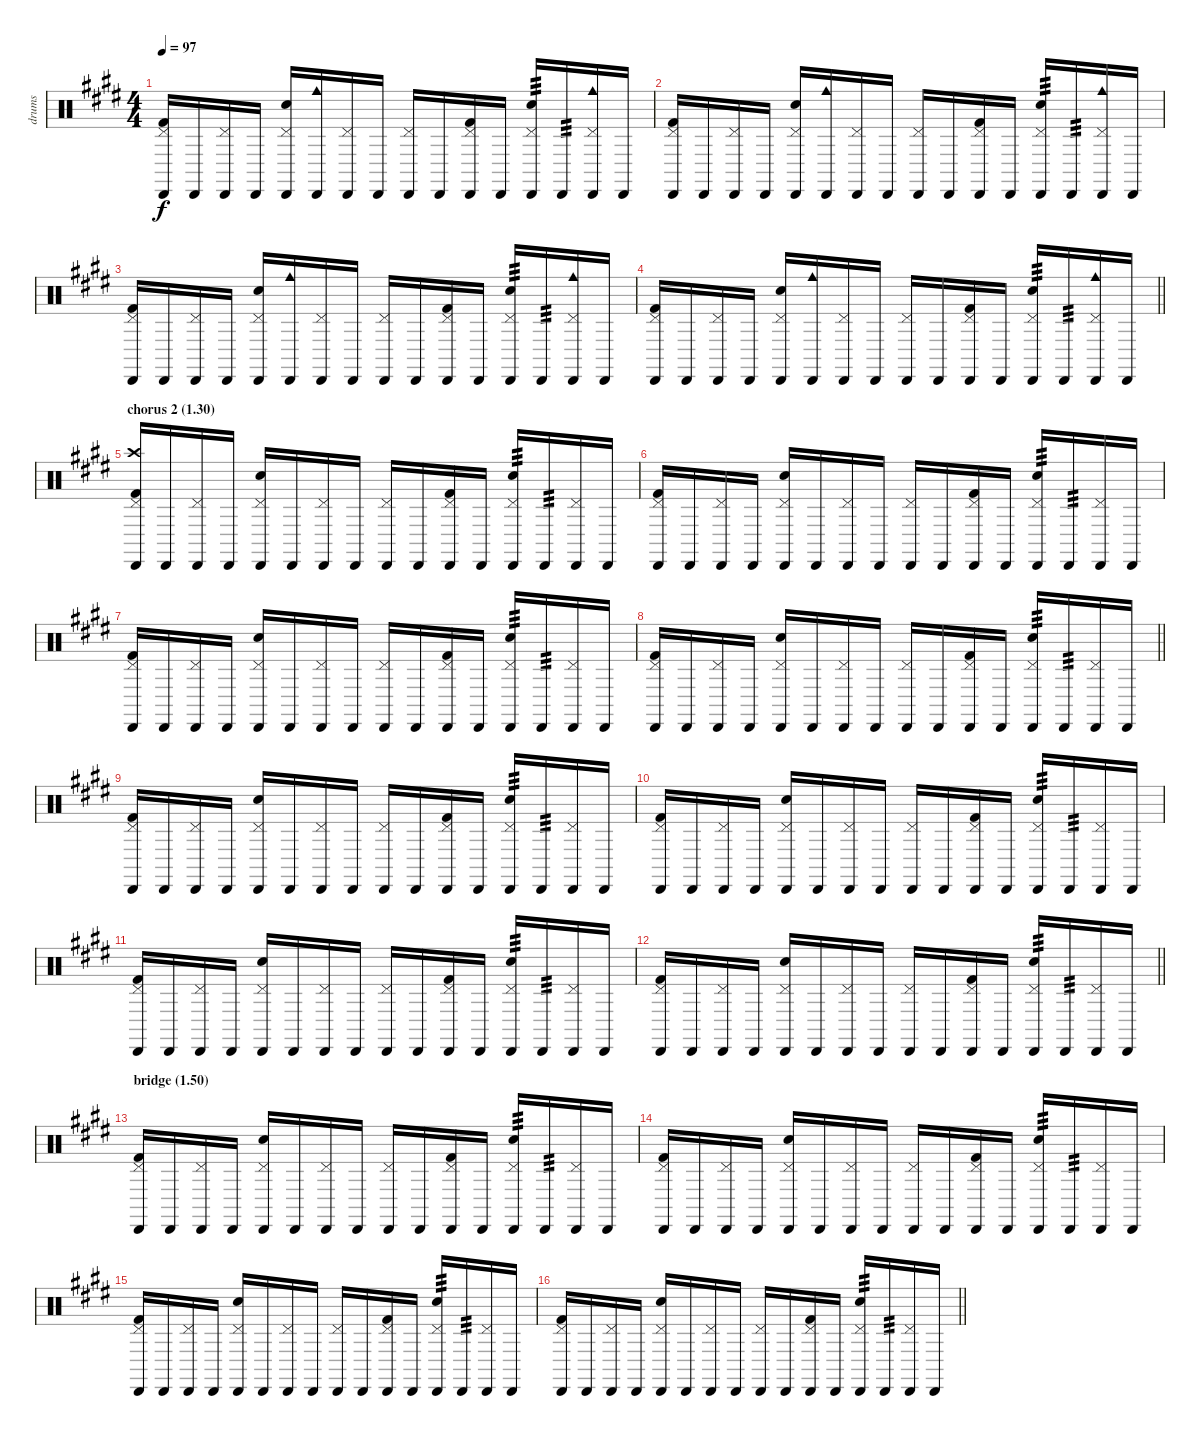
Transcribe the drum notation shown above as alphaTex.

\track ("drums" "drums") {instrument percussion}
\staff {score}
\articulation defaults
\ts (4 4)
\tempo 97
\clef neutral
\ks e
("Pedal Hi-Hat (hit)" "Cabasa (hit)" "Kick (hit) 2").16{dy f} "Cabasa (hit)".16 ("Pedal Hi-Hat (hit)" "Cabasa (hit)").16 "Cabasa (hit)".16 ("Pedal Hi-Hat (hit)" "Cabasa (hit)" "Electric Snare (hit)").16 ("Cabasa (hit)" "Cowbell medium (hit)").16 ("Pedal Hi-Hat (hit)" "Cabasa (hit)").16 "Cabasa (hit)".16 ("Pedal Hi-Hat (hit)" "Cabasa (hit)").16 "Cabasa (hit)".16 ("Pedal Hi-Hat (hit)" "Cabasa (hit)" "Kick (hit) 2").16 "Cabasa (hit)".16 ("Pedal Hi-Hat (hit)" "Cabasa (hit)" "Electric Snare (hit)").16{tp 3} "Cabasa (hit)".16{tp 3} ("Pedal Hi-Hat (hit)" "Cabasa (hit)" "Cowbell medium (hit)").16 "Cabasa (hit)".16 |
("Pedal Hi-Hat (hit)" "Cabasa (hit)" "Kick (hit) 2").16 "Cabasa (hit)".16 ("Pedal Hi-Hat (hit)" "Cabasa (hit)").16 "Cabasa (hit)".16 ("Pedal Hi-Hat (hit)" "Cabasa (hit)" "Electric Snare (hit)").16 ("Cabasa (hit)" "Cowbell medium (hit)").16 ("Pedal Hi-Hat (hit)" "Cabasa (hit)").16 "Cabasa (hit)".16 ("Pedal Hi-Hat (hit)" "Cabasa (hit)").16 "Cabasa (hit)".16 ("Pedal Hi-Hat (hit)" "Cabasa (hit)" "Kick (hit) 2").16 "Cabasa (hit)".16 ("Pedal Hi-Hat (hit)" "Cabasa (hit)" "Electric Snare (hit)").16{tp 3} "Cabasa (hit)".16{tp 3} ("Pedal Hi-Hat (hit)" "Cabasa (hit)" "Cowbell medium (hit)").16 "Cabasa (hit)".16 |
("Pedal Hi-Hat (hit)" "Cabasa (hit)" "Kick (hit) 2").16 "Cabasa (hit)".16 ("Pedal Hi-Hat (hit)" "Cabasa (hit)").16 "Cabasa (hit)".16 ("Pedal Hi-Hat (hit)" "Cabasa (hit)" "Electric Snare (hit)").16 ("Cabasa (hit)" "Cowbell medium (hit)").16 ("Pedal Hi-Hat (hit)" "Cabasa (hit)").16 "Cabasa (hit)".16 ("Pedal Hi-Hat (hit)" "Cabasa (hit)").16 "Cabasa (hit)".16 ("Pedal Hi-Hat (hit)" "Cabasa (hit)" "Kick (hit) 2").16 "Cabasa (hit)".16 ("Pedal Hi-Hat (hit)" "Cabasa (hit)" "Electric Snare (hit)").16{tp 3} "Cabasa (hit)".16{tp 3} ("Pedal Hi-Hat (hit)" "Cabasa (hit)" "Cowbell medium (hit)").16 "Cabasa (hit)".16 |
\barLineRight lightlight
("Pedal Hi-Hat (hit)" "Cabasa (hit)" "Kick (hit) 2").16 "Cabasa (hit)".16 ("Pedal Hi-Hat (hit)" "Cabasa (hit)").16 "Cabasa (hit)".16 ("Pedal Hi-Hat (hit)" "Cabasa (hit)" "Electric Snare (hit)").16 ("Cabasa (hit)" "Cowbell medium (hit)").16 ("Pedal Hi-Hat (hit)" "Cabasa (hit)").16 "Cabasa (hit)".16 ("Pedal Hi-Hat (hit)" "Cabasa (hit)").16 "Cabasa (hit)".16 ("Pedal Hi-Hat (hit)" "Cabasa (hit)" "Kick (hit) 2").16 "Cabasa (hit)".16 ("Pedal Hi-Hat (hit)" "Cabasa (hit)" "Electric Snare (hit)").16{tp 3} "Cabasa (hit)".16{tp 3} ("Pedal Hi-Hat (hit)" "Cabasa (hit)" "Cowbell medium (hit)").16 "Cabasa (hit)".16 |
\section ("" "chorus 2 (1.30)")
("Pedal Hi-Hat (hit)" "Cabasa (hit)" "Crash high (hit)" "Kick (hit) 2").16 "Cabasa (hit)".16 ("Pedal Hi-Hat (hit)" "Cabasa (hit)").16 "Cabasa (hit)".16 ("Pedal Hi-Hat (hit)" "Cabasa (hit)" "Electric Snare (hit)").16 "Cabasa (hit)".16 ("Pedal Hi-Hat (hit)" "Cabasa (hit)").16 "Cabasa (hit)".16 ("Pedal Hi-Hat (hit)" "Cabasa (hit)").16 "Cabasa (hit)".16 ("Pedal Hi-Hat (hit)" "Cabasa (hit)" "Kick (hit) 2").16 "Cabasa (hit)".16 ("Pedal Hi-Hat (hit)" "Cabasa (hit)" "Electric Snare (hit)").16{tp 3} "Cabasa (hit)".16{tp 3} ("Pedal Hi-Hat (hit)" "Cabasa (hit)").16 "Cabasa (hit)".16 |
("Pedal Hi-Hat (hit)" "Cabasa (hit)" "Kick (hit) 2").16 "Cabasa (hit)".16 ("Pedal Hi-Hat (hit)" "Cabasa (hit)").16 "Cabasa (hit)".16 ("Pedal Hi-Hat (hit)" "Cabasa (hit)" "Electric Snare (hit)").16 "Cabasa (hit)".16 ("Pedal Hi-Hat (hit)" "Cabasa (hit)").16 "Cabasa (hit)".16 ("Pedal Hi-Hat (hit)" "Cabasa (hit)").16 "Cabasa (hit)".16 ("Pedal Hi-Hat (hit)" "Cabasa (hit)" "Kick (hit) 2").16 "Cabasa (hit)".16 ("Pedal Hi-Hat (hit)" "Cabasa (hit)" "Electric Snare (hit)").16{tp 3} "Cabasa (hit)".16{tp 3} ("Pedal Hi-Hat (hit)" "Cabasa (hit)").16 "Cabasa (hit)".16 |
("Pedal Hi-Hat (hit)" "Cabasa (hit)" "Kick (hit) 2").16 "Cabasa (hit)".16 ("Pedal Hi-Hat (hit)" "Cabasa (hit)").16 "Cabasa (hit)".16 ("Pedal Hi-Hat (hit)" "Cabasa (hit)" "Electric Snare (hit)").16 "Cabasa (hit)".16 ("Pedal Hi-Hat (hit)" "Cabasa (hit)").16 "Cabasa (hit)".16 ("Pedal Hi-Hat (hit)" "Cabasa (hit)").16 "Cabasa (hit)".16 ("Pedal Hi-Hat (hit)" "Cabasa (hit)" "Kick (hit) 2").16 "Cabasa (hit)".16 ("Pedal Hi-Hat (hit)" "Cabasa (hit)" "Electric Snare (hit)").16{tp 3} "Cabasa (hit)".16{tp 3} ("Pedal Hi-Hat (hit)" "Cabasa (hit)").16 "Cabasa (hit)".16 |
\barLineRight lightlight
("Pedal Hi-Hat (hit)" "Cabasa (hit)" "Kick (hit) 2").16 "Cabasa (hit)".16 ("Pedal Hi-Hat (hit)" "Cabasa (hit)").16 "Cabasa (hit)".16 ("Pedal Hi-Hat (hit)" "Cabasa (hit)" "Electric Snare (hit)").16 "Cabasa (hit)".16 ("Pedal Hi-Hat (hit)" "Cabasa (hit)").16 "Cabasa (hit)".16 ("Pedal Hi-Hat (hit)" "Cabasa (hit)").16 "Cabasa (hit)".16 ("Pedal Hi-Hat (hit)" "Cabasa (hit)" "Kick (hit) 2").16 "Cabasa (hit)".16 ("Pedal Hi-Hat (hit)" "Cabasa (hit)" "Electric Snare (hit)").16{tp 3} "Cabasa (hit)".16{tp 3} ("Pedal Hi-Hat (hit)" "Cabasa (hit)").16 "Cabasa (hit)".16 |
("Pedal Hi-Hat (hit)" "Cabasa (hit)" "Kick (hit) 2").16 "Cabasa (hit)".16 ("Pedal Hi-Hat (hit)" "Cabasa (hit)").16 "Cabasa (hit)".16 ("Pedal Hi-Hat (hit)" "Cabasa (hit)" "Electric Snare (hit)").16 "Cabasa (hit)".16 ("Pedal Hi-Hat (hit)" "Cabasa (hit)").16 "Cabasa (hit)".16 ("Pedal Hi-Hat (hit)" "Cabasa (hit)").16 "Cabasa (hit)".16 ("Pedal Hi-Hat (hit)" "Cabasa (hit)" "Kick (hit) 2").16 "Cabasa (hit)".16 ("Pedal Hi-Hat (hit)" "Cabasa (hit)" "Electric Snare (hit)").16{tp 3} "Cabasa (hit)".16{tp 3} ("Pedal Hi-Hat (hit)" "Cabasa (hit)").16 "Cabasa (hit)".16 |
("Pedal Hi-Hat (hit)" "Cabasa (hit)" "Kick (hit) 2").16 "Cabasa (hit)".16 ("Pedal Hi-Hat (hit)" "Cabasa (hit)").16 "Cabasa (hit)".16 ("Pedal Hi-Hat (hit)" "Cabasa (hit)" "Electric Snare (hit)").16 "Cabasa (hit)".16 ("Pedal Hi-Hat (hit)" "Cabasa (hit)").16 "Cabasa (hit)".16 ("Pedal Hi-Hat (hit)" "Cabasa (hit)").16 "Cabasa (hit)".16 ("Pedal Hi-Hat (hit)" "Cabasa (hit)" "Kick (hit) 2").16 "Cabasa (hit)".16 ("Pedal Hi-Hat (hit)" "Cabasa (hit)" "Electric Snare (hit)").16{tp 3} "Cabasa (hit)".16{tp 3} ("Pedal Hi-Hat (hit)" "Cabasa (hit)").16 "Cabasa (hit)".16 |
("Pedal Hi-Hat (hit)" "Cabasa (hit)" "Kick (hit) 2").16 "Cabasa (hit)".16 ("Pedal Hi-Hat (hit)" "Cabasa (hit)").16 "Cabasa (hit)".16 ("Pedal Hi-Hat (hit)" "Cabasa (hit)" "Electric Snare (hit)").16 "Cabasa (hit)".16 ("Pedal Hi-Hat (hit)" "Cabasa (hit)").16 "Cabasa (hit)".16 ("Pedal Hi-Hat (hit)" "Cabasa (hit)").16 "Cabasa (hit)".16 ("Pedal Hi-Hat (hit)" "Cabasa (hit)" "Kick (hit) 2").16 "Cabasa (hit)".16 ("Pedal Hi-Hat (hit)" "Cabasa (hit)" "Electric Snare (hit)").16{tp 3} "Cabasa (hit)".16{tp 3} ("Pedal Hi-Hat (hit)" "Cabasa (hit)").16 "Cabasa (hit)".16 |
\barLineRight lightlight
("Pedal Hi-Hat (hit)" "Cabasa (hit)" "Kick (hit) 2").16 "Cabasa (hit)".16 ("Pedal Hi-Hat (hit)" "Cabasa (hit)").16 "Cabasa (hit)".16 ("Pedal Hi-Hat (hit)" "Cabasa (hit)" "Electric Snare (hit)").16 "Cabasa (hit)".16 ("Pedal Hi-Hat (hit)" "Cabasa (hit)").16 "Cabasa (hit)".16 ("Pedal Hi-Hat (hit)" "Cabasa (hit)").16 "Cabasa (hit)".16 ("Pedal Hi-Hat (hit)" "Cabasa (hit)" "Kick (hit) 2").16 "Cabasa (hit)".16 ("Pedal Hi-Hat (hit)" "Cabasa (hit)" "Electric Snare (hit)").16{tp 3} "Cabasa (hit)".16{tp 3} ("Pedal Hi-Hat (hit)" "Cabasa (hit)").16 "Cabasa (hit)".16 |
\section ("" "bridge (1.50)")
("Pedal Hi-Hat (hit)" "Cabasa (hit)" "Kick (hit) 2").16 "Cabasa (hit)".16 ("Pedal Hi-Hat (hit)" "Cabasa (hit)").16 "Cabasa (hit)".16 ("Pedal Hi-Hat (hit)" "Cabasa (hit)" "Electric Snare (hit)").16 "Cabasa (hit)".16 ("Pedal Hi-Hat (hit)" "Cabasa (hit)").16 "Cabasa (hit)".16 ("Pedal Hi-Hat (hit)" "Cabasa (hit)").16 "Cabasa (hit)".16 ("Pedal Hi-Hat (hit)" "Cabasa (hit)" "Kick (hit) 2").16 "Cabasa (hit)".16 ("Pedal Hi-Hat (hit)" "Cabasa (hit)" "Electric Snare (hit)").16{tp 3} "Cabasa (hit)".16{tp 3} ("Pedal Hi-Hat (hit)" "Cabasa (hit)").16 "Cabasa (hit)".16 |
("Pedal Hi-Hat (hit)" "Cabasa (hit)" "Kick (hit) 2").16 "Cabasa (hit)".16 ("Pedal Hi-Hat (hit)" "Cabasa (hit)").16 "Cabasa (hit)".16 ("Pedal Hi-Hat (hit)" "Cabasa (hit)" "Electric Snare (hit)").16 "Cabasa (hit)".16 ("Pedal Hi-Hat (hit)" "Cabasa (hit)").16 "Cabasa (hit)".16 ("Pedal Hi-Hat (hit)" "Cabasa (hit)").16 "Cabasa (hit)".16 ("Pedal Hi-Hat (hit)" "Cabasa (hit)" "Kick (hit) 2").16 "Cabasa (hit)".16 ("Pedal Hi-Hat (hit)" "Cabasa (hit)" "Electric Snare (hit)").16{tp 3} "Cabasa (hit)".16{tp 3} ("Pedal Hi-Hat (hit)" "Cabasa (hit)").16 "Cabasa (hit)".16 |
("Pedal Hi-Hat (hit)" "Cabasa (hit)" "Kick (hit) 2").16 "Cabasa (hit)".16 ("Pedal Hi-Hat (hit)" "Cabasa (hit)").16 "Cabasa (hit)".16 ("Pedal Hi-Hat (hit)" "Cabasa (hit)" "Electric Snare (hit)").16 "Cabasa (hit)".16 ("Pedal Hi-Hat (hit)" "Cabasa (hit)").16 "Cabasa (hit)".16 ("Pedal Hi-Hat (hit)" "Cabasa (hit)").16 "Cabasa (hit)".16 ("Pedal Hi-Hat (hit)" "Cabasa (hit)" "Kick (hit) 2").16 "Cabasa (hit)".16 ("Pedal Hi-Hat (hit)" "Cabasa (hit)" "Electric Snare (hit)").16{tp 3} "Cabasa (hit)".16{tp 3} ("Pedal Hi-Hat (hit)" "Cabasa (hit)").16 "Cabasa (hit)".16 |
\barLineRight lightlight
("Pedal Hi-Hat (hit)" "Cabasa (hit)" "Kick (hit) 2").16 "Cabasa (hit)".16 ("Pedal Hi-Hat (hit)" "Cabasa (hit)").16 "Cabasa (hit)".16 ("Pedal Hi-Hat (hit)" "Cabasa (hit)" "Electric Snare (hit)").16 "Cabasa (hit)".16 ("Pedal Hi-Hat (hit)" "Cabasa (hit)").16 "Cabasa (hit)".16 ("Pedal Hi-Hat (hit)" "Cabasa (hit)").16 "Cabasa (hit)".16 ("Pedal Hi-Hat (hit)" "Cabasa (hit)" "Kick (hit) 2").16 "Cabasa (hit)".16 ("Pedal Hi-Hat (hit)" "Cabasa (hit)" "Electric Snare (hit)").16{tp 3} "Cabasa (hit)".16{tp 3} ("Pedal Hi-Hat (hit)" "Cabasa (hit)").16 "Cabasa (hit)".16
